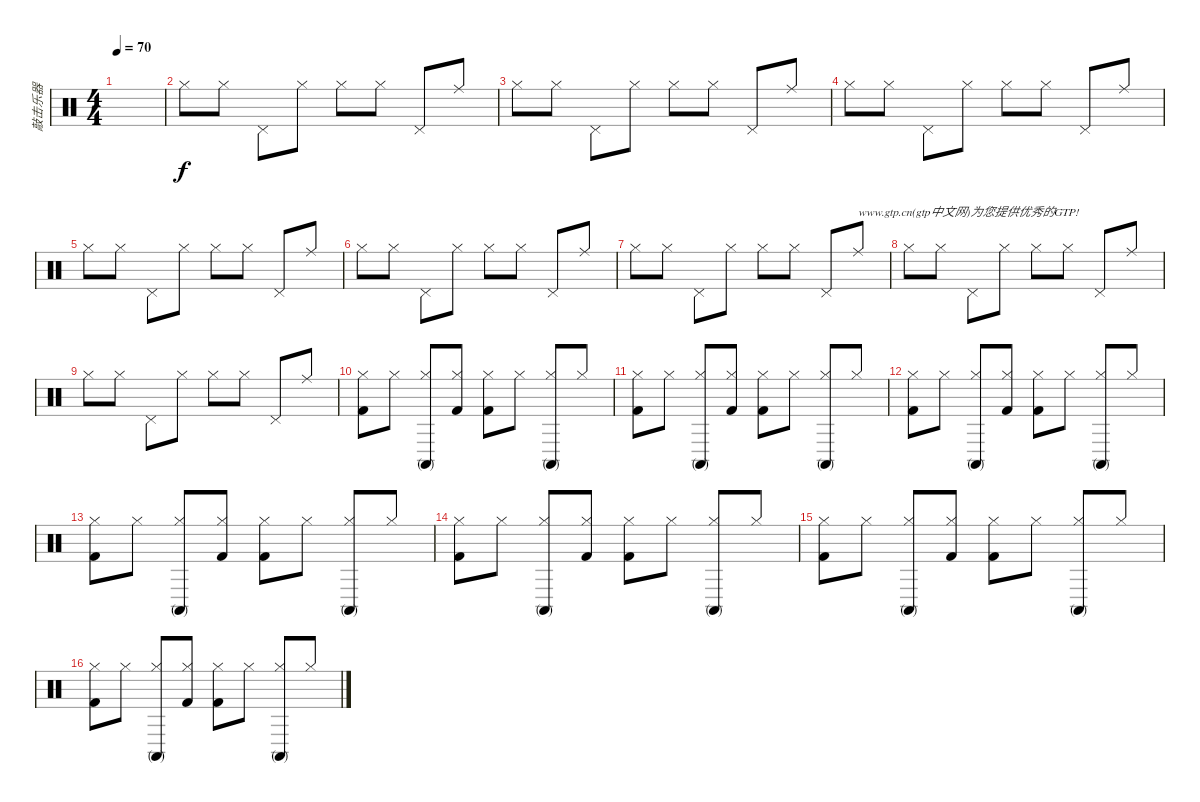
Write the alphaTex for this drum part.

\track ("敲击乐器" "敲击乐器") {instrument percussion}
\staff {score}
\articulation defaults
\ts (4 4)
\tempo 70
\clef neutral
\ks c
|
"Hi-Hat (closed)".8 "Hi-Hat (closed)".8 "Pedal Hi-Hat (hit)".8 "Hi-Hat (closed)".8 "Hi-Hat (closed)".8 "Hi-Hat (closed)".8 "Pedal Hi-Hat (hit)".8 "Ride (middle)".8 |
"Hi-Hat (closed)".8 "Hi-Hat (closed)".8 "Pedal Hi-Hat (hit)".8 "Hi-Hat (closed)".8 "Hi-Hat (closed)".8 "Hi-Hat (closed)".8 "Pedal Hi-Hat (hit)".8 "Ride (middle)".8 |
"Hi-Hat (closed)".8 "Hi-Hat (closed)".8 "Pedal Hi-Hat (hit)".8 "Hi-Hat (closed)".8 "Hi-Hat (closed)".8 "Hi-Hat (closed)".8 "Pedal Hi-Hat (hit)".8 "Ride (middle)".8 |
"Hi-Hat (closed)".8 "Hi-Hat (closed)".8 "Pedal Hi-Hat (hit)".8 "Hi-Hat (closed)".8 "Hi-Hat (closed)".8 "Hi-Hat (closed)".8 "Pedal Hi-Hat (hit)".8 "Ride (middle)".8 |
"Hi-Hat (closed)".8 "Hi-Hat (closed)".8 "Pedal Hi-Hat (hit)".8 "Hi-Hat (closed)".8 "Hi-Hat (closed)".8 "Hi-Hat (closed)".8 "Pedal Hi-Hat (hit)".8 "Ride (middle)".8 |
"Hi-Hat (closed)".8 "Hi-Hat (closed)".8 "Pedal Hi-Hat (hit)".8 "Hi-Hat (closed)".8 "Hi-Hat (closed)".8 "Hi-Hat (closed)".8 "Pedal Hi-Hat (hit)".8 "Ride (middle)".8{txt "www.gtp.cn(gtp中文网)为您提供优秀的GTP!"} |
"Hi-Hat (closed)".8 "Hi-Hat (closed)".8 "Pedal Hi-Hat (hit)".8 "Hi-Hat (closed)".8 "Hi-Hat (closed)".8 "Hi-Hat (closed)".8 "Pedal Hi-Hat (hit)".8 "Ride (middle)".8 |
"Hi-Hat (closed)".8 "Hi-Hat (closed)".8 "Pedal Hi-Hat (hit)".8 "Hi-Hat (closed)".8 "Hi-Hat (closed)".8 "Hi-Hat (closed)".8 "Pedal Hi-Hat (hit)".8 "Ride (middle)".8 |
("Hi-Hat (closed)" "Kick (hit) 2").8 "Hi-Hat (closed)".8 ("Hi-Hat (closed)" "Conga high (mute)").8 ("Hi-Hat (closed)" "Kick (hit) 2").8 ("Hi-Hat (closed)" "Kick (hit) 2").8 "Hi-Hat (closed)".8 ("Hi-Hat (closed)" "Conga high (mute)").8 "Hi-Hat (closed)".8 |
("Hi-Hat (closed)" "Kick (hit) 2").8 "Hi-Hat (closed)".8 ("Hi-Hat (closed)" "Conga high (mute)").8 ("Hi-Hat (closed)" "Kick (hit) 2").8 ("Hi-Hat (closed)" "Kick (hit) 2").8 "Hi-Hat (closed)".8 ("Hi-Hat (closed)" "Conga high (mute)").8 "Hi-Hat (closed)".8 |
("Hi-Hat (closed)" "Kick (hit) 2").8 "Hi-Hat (closed)".8 ("Hi-Hat (closed)" "Conga high (mute)").8 ("Hi-Hat (closed)" "Kick (hit) 2").8 ("Hi-Hat (closed)" "Kick (hit) 2").8 "Hi-Hat (closed)".8 ("Hi-Hat (closed)" "Conga high (mute)").8 "Hi-Hat (closed)".8 |
("Hi-Hat (closed)" "Kick (hit) 2").8 "Hi-Hat (closed)".8 ("Hi-Hat (closed)" "Conga high (mute)").8 ("Hi-Hat (closed)" "Kick (hit) 2").8 ("Hi-Hat (closed)" "Kick (hit) 2").8 "Hi-Hat (closed)".8 ("Hi-Hat (closed)" "Conga high (mute)").8 "Hi-Hat (closed)".8 |
("Hi-Hat (closed)" "Kick (hit) 2").8 "Hi-Hat (closed)".8 ("Hi-Hat (closed)" "Conga high (mute)").8 ("Hi-Hat (closed)" "Kick (hit) 2").8 ("Hi-Hat (closed)" "Kick (hit) 2").8 "Hi-Hat (closed)".8 ("Hi-Hat (closed)" "Conga high (mute)").8 "Hi-Hat (closed)".8 |
("Hi-Hat (closed)" "Kick (hit) 2").8 "Hi-Hat (closed)".8 ("Hi-Hat (closed)" "Conga high (mute)").8 ("Hi-Hat (closed)" "Kick (hit) 2").8 ("Hi-Hat (closed)" "Kick (hit) 2").8 "Hi-Hat (closed)".8 ("Hi-Hat (closed)" "Conga high (mute)").8 "Hi-Hat (closed)".8 |
("Hi-Hat (closed)" "Kick (hit) 2").8 "Hi-Hat (closed)".8 ("Hi-Hat (closed)" "Conga high (mute)").8 ("Hi-Hat (closed)" "Kick (hit) 2").8 ("Hi-Hat (closed)" "Kick (hit) 2").8 "Hi-Hat (closed)".8 ("Hi-Hat (closed)" "Conga high (mute)").8 "Hi-Hat (closed)".8
